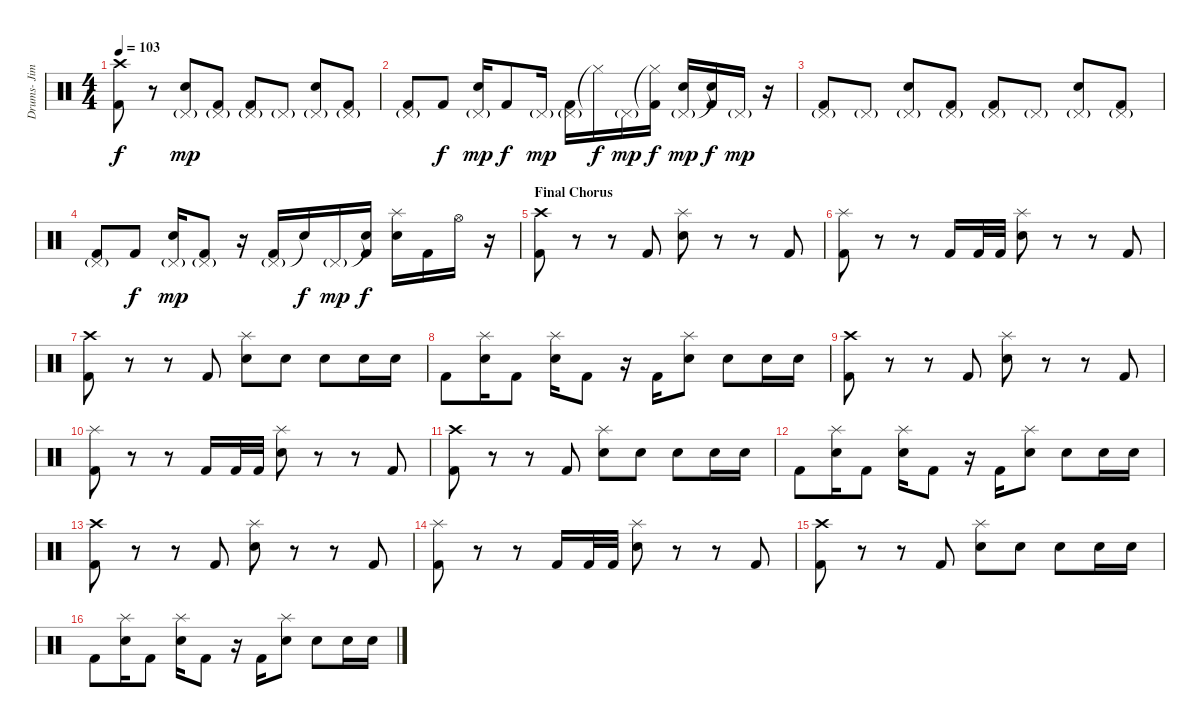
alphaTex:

\track ("Drums- Jimmy Bower" "Drums- Jim") {instrument percussion}
\staff {score}
\articulation defaults
\ts (4 4)
\tempo 103
\clef neutral
\ks c
("Crash high (hit)" "Kick (hit) 2").8{dy f} r.8 ("Pedal Hi-Hat (hit)"{g} "Electric Snare (hit)").8{dy mp} ("Pedal Hi-Hat (hit)"{g} "Kick (hit) 2").8 ("Pedal Hi-Hat (hit)"{g} "Kick (hit) 2").8 "Pedal Hi-Hat (hit)"{g}.8 ("Pedal Hi-Hat (hit)"{g} "Electric Snare (hit)").8 ("Pedal Hi-Hat (hit)"{g} "Kick (hit) 2").8 |
("Pedal Hi-Hat (hit)"{g} "Kick (hit) 2").8 "Kick (hit) 2".8{dy f} ("Pedal Hi-Hat (hit)"{g} "Electric Snare (hit)").16{dy mp} "Kick (hit) 2".8{dy f} "Pedal Hi-Hat (hit)"{g}.16{dy mp} ("Pedal Hi-Hat (hit)"{g} "Kick (hit) 2").16 "Hi-Hat (closed)"{t}.16{dy f} "Pedal Hi-Hat (hit)"{g}.16{dy mp} ("Hi-Hat (closed)"{t} "Kick (hit) 2").16{dy f} ("Pedal Hi-Hat (hit)"{g} "Electric Snare (hit)").16{dy mp} ("Snare (hit)"{t} "Kick (hit) 2").16{dy f} "Pedal Hi-Hat (hit)"{g}.16{dy mp} r.16 |
("Pedal Hi-Hat (hit)"{g} "Kick (hit) 2").8 "Pedal Hi-Hat (hit)"{g}.8 ("Pedal Hi-Hat (hit)"{g} "Electric Snare (hit)").8 ("Pedal Hi-Hat (hit)"{g} "Kick (hit) 2").8 ("Pedal Hi-Hat (hit)"{g} "Kick (hit) 2").8 "Pedal Hi-Hat (hit)"{g}.8 ("Pedal Hi-Hat (hit)"{g} "Electric Snare (hit)").8 ("Pedal Hi-Hat (hit)"{g} "Kick (hit) 2").8 |
("Pedal Hi-Hat (hit)"{g} "Kick (hit) 2").8 "Kick (hit) 2".8{dy f} ("Pedal Hi-Hat (hit)"{g} "Electric Snare (hit)").16{dy mp} ("Pedal Hi-Hat (hit)"{g} "Kick (hit) 2").8 r.16 ("Pedal Hi-Hat (hit)"{g} "Kick (hit) 2").16 "Snare (hit)"{t}.16{dy f} "Pedal Hi-Hat (hit)"{g}.16{dy mp} ("Snare (hit)"{t} "Kick (hit) 2").16{dy f} ("Splash (hit)" "Electric Snare (hit)").16 "Kick (hit) 2".16 "Hi-Hat (open)".16 r.16 |
\section ("" "Final Chorus")
("Crash high (hit)" "Kick (hit) 2").8 r.8 r.8 "Kick (hit) 2".8 ("Splash (hit)" "Electric Snare (hit)").8 r.8 r.8 "Kick (hit) 2".8 |
("Splash (hit)" "Kick (hit) 2").8 r.8 r.8 "Kick (hit) 2".16 "Kick (hit) 2".32 "Kick (hit) 2".32 ("Splash (hit)" "Electric Snare (hit)").8 r.8 r.8 "Kick (hit) 2".8 |
("Crash high (hit)" "Kick (hit) 2").8 r.8 r.8 "Kick (hit) 2".8 ("Splash (hit)" "Electric Snare (hit)").8 "Electric Snare (hit)".8 "Electric Snare (hit)".8 "Electric Snare (hit)".16 "Electric Snare (hit)".16 |
"Kick (hit) 2".8 ("Splash (hit)" "Electric Snare (hit)").16 "Kick (hit) 2".8 ("Splash (hit)" "Electric Snare (hit)").16 "Kick (hit) 2".8 r.16 "Kick (hit) 2".16 ("Splash (hit)" "Electric Snare (hit)").8 "Electric Snare (hit)".8 "Electric Snare (hit)".16 "Electric Snare (hit)".16 |
("Crash high (hit)" "Kick (hit) 2").8 r.8 r.8 "Kick (hit) 2".8 ("Splash (hit)" "Electric Snare (hit)").8 r.8 r.8 "Kick (hit) 2".8 |
("Splash (hit)" "Kick (hit) 2").8 r.8 r.8 "Kick (hit) 2".16 "Kick (hit) 2".32 "Kick (hit) 2".32 ("Splash (hit)" "Electric Snare (hit)").8 r.8 r.8 "Kick (hit) 2".8 |
("Crash high (hit)" "Kick (hit) 2").8 r.8 r.8 "Kick (hit) 2".8 ("Splash (hit)" "Electric Snare (hit)").8 "Electric Snare (hit)".8 "Electric Snare (hit)".8 "Electric Snare (hit)".16 "Electric Snare (hit)".16 |
"Kick (hit) 2".8 ("Splash (hit)" "Electric Snare (hit)").16 "Kick (hit) 2".8 ("Splash (hit)" "Electric Snare (hit)").16 "Kick (hit) 2".8 r.16 "Kick (hit) 2".16 ("Splash (hit)" "Electric Snare (hit)").8 "Electric Snare (hit)".8 "Electric Snare (hit)".16 "Electric Snare (hit)".16 |
("Crash high (hit)" "Kick (hit) 2").8 r.8 r.8 "Kick (hit) 2".8 ("Splash (hit)" "Electric Snare (hit)").8 r.8 r.8 "Kick (hit) 2".8 |
("Splash (hit)" "Kick (hit) 2").8 r.8 r.8 "Kick (hit) 2".16 "Kick (hit) 2".32 "Kick (hit) 2".32 ("Splash (hit)" "Electric Snare (hit)").8 r.8 r.8 "Kick (hit) 2".8 |
("Crash high (hit)" "Kick (hit) 2").8 r.8 r.8 "Kick (hit) 2".8 ("Splash (hit)" "Electric Snare (hit)").8 "Electric Snare (hit)".8 "Electric Snare (hit)".8 "Electric Snare (hit)".16 "Electric Snare (hit)".16 |
"Kick (hit) 2".8 ("Splash (hit)" "Electric Snare (hit)").16 "Kick (hit) 2".8 ("Splash (hit)" "Electric Snare (hit)").16 "Kick (hit) 2".8 r.16 "Kick (hit) 2".16 ("Splash (hit)" "Electric Snare (hit)").8 "Electric Snare (hit)".8 "Electric Snare (hit)".16 "Electric Snare (hit)".16
